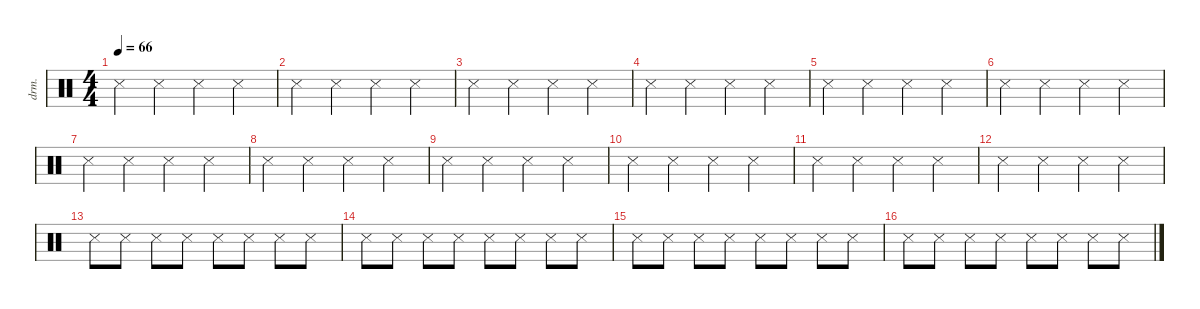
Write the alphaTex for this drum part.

\defaultSystemsLayout 4
\hideDynamics
\bracketExtendMode nobrackets
\otherSystemsTrackNameOrientation horizontal
\track ("Drumkit" "drm.") {instrument percussion}
\staff {score}
\articulation defaults
\ts (4 4)
\tempo 66
\clef neutral
\ks c "Metronome (hit)".4{dy mf} "Metronome (hit)".4 "Metronome (hit)".4 "Metronome (hit)".4
|
"Metronome (hit)".4 "Metronome (hit)".4 "Metronome (hit)".4 "Metronome (hit)".4 |
"Metronome (hit)".4 "Metronome (hit)".4 "Metronome (hit)".4 "Metronome (hit)".4 |
"Metronome (hit)".4 "Metronome (hit)".4 "Metronome (hit)".4 "Metronome (hit)".4 |
"Metronome (hit)".4 "Metronome (hit)".4 "Metronome (hit)".4 "Metronome (hit)".4 |
"Metronome (hit)".4 "Metronome (hit)".4 "Metronome (hit)".4 "Metronome (hit)".4 |
"Metronome (hit)".4 "Metronome (hit)".4 "Metronome (hit)".4 "Metronome (hit)".4 |
"Metronome (hit)".4 "Metronome (hit)".4 "Metronome (hit)".4 "Metronome (hit)".4 |
"Metronome (hit)".4 "Metronome (hit)".4 "Metronome (hit)".4 "Metronome (hit)".4 |
"Metronome (hit)".4 "Metronome (hit)".4 "Metronome (hit)".4 "Metronome (hit)".4 |
"Metronome (hit)".4 "Metronome (hit)".4 "Metronome (hit)".4 "Metronome (hit)".4 |
"Metronome (hit)".4 "Metronome (hit)".4 "Metronome (hit)".4 "Metronome (hit)".4 |
"Metronome (hit)".8 "Metronome (hit)".8 "Metronome (hit)".8 "Metronome (hit)".8 "Metronome (hit)".8 "Metronome (hit)".8 "Metronome (hit)".8 "Metronome (hit)".8 |
"Metronome (hit)".8 "Metronome (hit)".8 "Metronome (hit)".8 "Metronome (hit)".8 "Metronome (hit)".8 "Metronome (hit)".8 "Metronome (hit)".8 "Metronome (hit)".8 |
"Metronome (hit)".8 "Metronome (hit)".8 "Metronome (hit)".8 "Metronome (hit)".8 "Metronome (hit)".8 "Metronome (hit)".8 "Metronome (hit)".8 "Metronome (hit)".8 |
"Metronome (hit)".8 "Metronome (hit)".8 "Metronome (hit)".8 "Metronome (hit)".8 "Metronome (hit)".8 "Metronome (hit)".8 "Metronome (hit)".8 "Metronome (hit)".8
